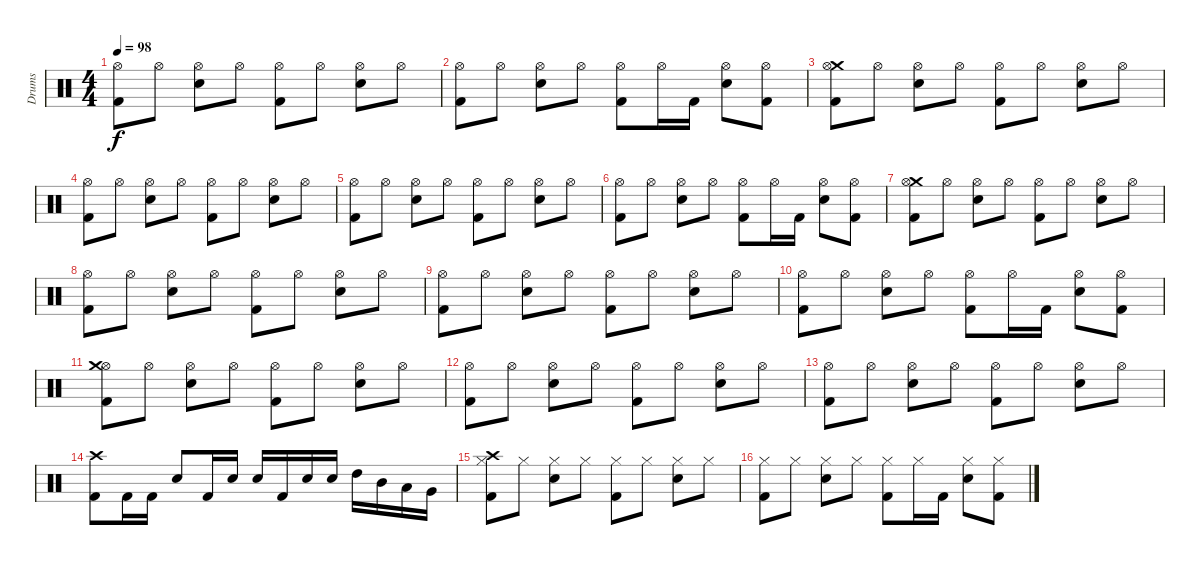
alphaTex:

\track ("Drums" "Drums") {instrument percussion}
\staff {score}
\articulation defaults
\ts (4 4)
\tempo 98
\clef neutral
\ks c
("Hi-Hat (open)" "Kick (hit) 2").8{dy f} "Hi-Hat (open)".8 ("Hi-Hat (open)" "Snare (hit) 2").8 "Hi-Hat (open)".8 ("Hi-Hat (open)" "Kick (hit) 2").8 "Hi-Hat (open)".8 ("Hi-Hat (open)" "Snare (hit) 2").8 "Hi-Hat (open)".8 |
("Hi-Hat (open)" "Kick (hit) 2").8 "Hi-Hat (open)".8 ("Hi-Hat (open)" "Snare (hit) 2").8 "Hi-Hat (open)".8 ("Hi-Hat (open)" "Kick (hit) 2").8 "Hi-Hat (open)".16 "Kick (hit) 2".16 ("Hi-Hat (open)" "Snare (hit) 2").8 ("Hi-Hat (open)" "Kick (hit) 2").8 |
("Crash medium (hit)" "Hi-Hat (open)" "Kick (hit) 2").8 "Hi-Hat (open)".8 ("Hi-Hat (open)" "Snare (hit) 2").8 "Hi-Hat (open)".8 ("Hi-Hat (open)" "Kick (hit) 2").8 "Hi-Hat (open)".8 ("Hi-Hat (open)" "Snare (hit) 2").8 "Hi-Hat (open)".8 |
("Hi-Hat (open)" "Kick (hit) 2").8 "Hi-Hat (open)".8 ("Hi-Hat (open)" "Snare (hit) 2").8 "Hi-Hat (open)".8 ("Hi-Hat (open)" "Kick (hit) 2").8 "Hi-Hat (open)".8 ("Hi-Hat (open)" "Snare (hit) 2").8 "Hi-Hat (open)".8 |
("Hi-Hat (open)" "Kick (hit) 2").8 "Hi-Hat (open)".8 ("Hi-Hat (open)" "Snare (hit) 2").8 "Hi-Hat (open)".8 ("Hi-Hat (open)" "Kick (hit) 2").8 "Hi-Hat (open)".8 ("Hi-Hat (open)" "Snare (hit) 2").8 "Hi-Hat (open)".8 |
("Hi-Hat (open)" "Kick (hit) 2").8 "Hi-Hat (open)".8 ("Hi-Hat (open)" "Snare (hit) 2").8 "Hi-Hat (open)".8 ("Hi-Hat (open)" "Kick (hit) 2").8 "Hi-Hat (open)".16 "Kick (hit) 2".16 ("Hi-Hat (open)" "Snare (hit) 2").8 ("Hi-Hat (open)" "Kick (hit) 2").8 |
("Crash medium (hit)" "Hi-Hat (open)" "Kick (hit) 2").8 "Hi-Hat (open)".8 ("Hi-Hat (open)" "Snare (hit) 2").8 "Hi-Hat (open)".8 ("Hi-Hat (open)" "Kick (hit) 2").8 "Hi-Hat (open)".8 ("Hi-Hat (open)" "Snare (hit) 2").8 "Hi-Hat (open)".8 |
("Hi-Hat (open)" "Kick (hit) 2").8 "Hi-Hat (open)".8 ("Hi-Hat (open)" "Snare (hit) 2").8 "Hi-Hat (open)".8 ("Hi-Hat (open)" "Kick (hit) 2").8 "Hi-Hat (open)".8 ("Hi-Hat (open)" "Snare (hit) 2").8 "Hi-Hat (open)".8 |
("Hi-Hat (open)" "Kick (hit) 2").8 "Hi-Hat (open)".8 ("Hi-Hat (open)" "Snare (hit) 2").8 "Hi-Hat (open)".8 ("Hi-Hat (open)" "Kick (hit) 2").8 "Hi-Hat (open)".8 ("Hi-Hat (open)" "Snare (hit) 2").8 "Hi-Hat (open)".8 |
("Hi-Hat (open)" "Kick (hit) 2").8 "Hi-Hat (open)".8 ("Hi-Hat (open)" "Snare (hit) 2").8 "Hi-Hat (open)".8 ("Hi-Hat (open)" "Kick (hit) 2").8 "Hi-Hat (open)".16 "Kick (hit) 2".16 ("Hi-Hat (open)" "Snare (hit) 2").8 ("Hi-Hat (open)" "Kick (hit) 2").8 |
("Hi-Hat (open)" "Kick (hit) 2" "Crash medium (hit)").8 "Hi-Hat (open)".8 ("Hi-Hat (open)" "Snare (hit) 2").8 "Hi-Hat (open)".8 ("Hi-Hat (open)" "Kick (hit) 2").8 "Hi-Hat (open)".8 ("Hi-Hat (open)" "Snare (hit) 2").8 "Hi-Hat (open)".8 |
("Hi-Hat (open)" "Kick (hit) 2").8 "Hi-Hat (open)".8 ("Hi-Hat (open)" "Snare (hit) 2").8 "Hi-Hat (open)".8 ("Hi-Hat (open)" "Kick (hit) 2").8 "Hi-Hat (open)".8 ("Hi-Hat (open)" "Snare (hit) 2").8 "Hi-Hat (open)".8 |
("Hi-Hat (open)" "Kick (hit) 2").8 "Hi-Hat (open)".8 ("Hi-Hat (open)" "Snare (hit) 2").8 "Hi-Hat (open)".8 ("Hi-Hat (open)" "Kick (hit) 2").8 "Hi-Hat (open)".8 ("Hi-Hat (open)" "Snare (hit) 2").8 "Hi-Hat (open)".8 |
("Crash high (hit)" "Kick (hit) 2").8 "Kick (hit) 2".16 "Kick (hit) 2".16 "Snare (hit) 2".8 "Kick (hit) 2".16 "Snare (hit) 2".16 "Snare (hit) 2".16 "Kick (hit) 2".16 "Snare (hit) 2".16 "Snare (hit) 2".16 "High Tom (hit)".16 "Mid Tom (hit)".16 "Low Tom (hit)".16 "Very Low Tom (hit)".16 |
("Hi-Hat (closed)" "Kick (hit) 2" "Crash high (hit)").8 "Hi-Hat (closed)".8 ("Hi-Hat (closed)" "Snare (hit) 2").8 "Hi-Hat (closed)".8 ("Hi-Hat (closed)" "Kick (hit) 2").8 "Hi-Hat (closed)".8 ("Hi-Hat (closed)" "Snare (hit) 2").8 "Hi-Hat (closed)".8 |
("Hi-Hat (closed)" "Kick (hit) 2").8 "Hi-Hat (closed)".8 ("Hi-Hat (closed)" "Snare (hit) 2").8 "Hi-Hat (closed)".8 ("Hi-Hat (closed)" "Kick (hit) 2").8 "Hi-Hat (closed)".16 "Kick (hit) 2".16 ("Hi-Hat (closed)" "Snare (hit) 2").8 ("Hi-Hat (closed)" "Kick (hit) 2").8
